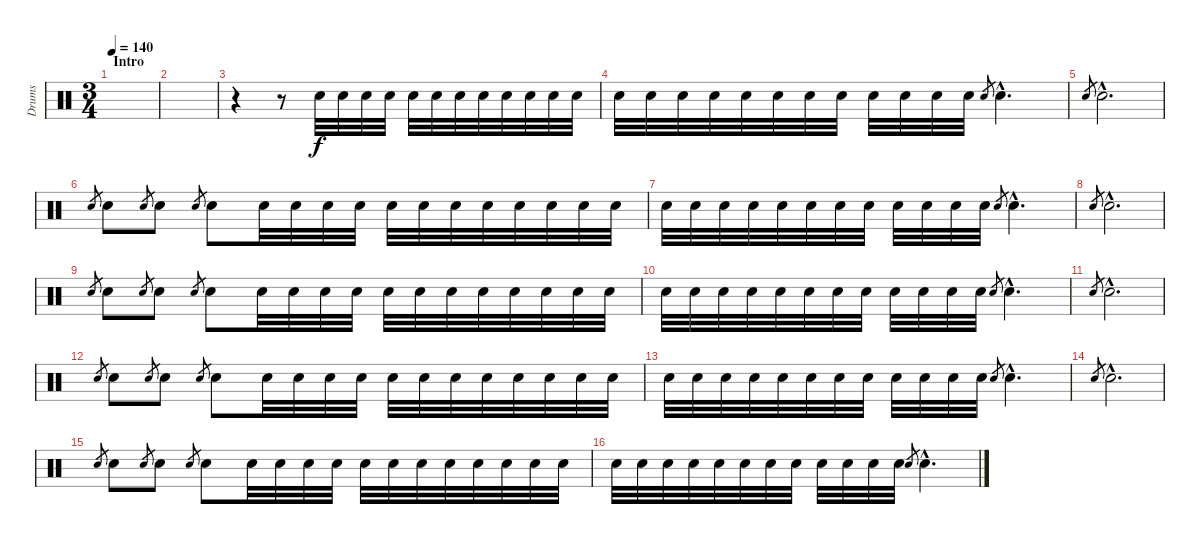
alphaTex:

\track ("Drums" "Drums") {instrument percussion}
\staff {score}
\articulation defaults
\ts (3 4)
\section ("" "Intro")
\tempo 140
\clef neutral
\ks c
|
|
r.4 r.8 "Snare (hit) 2".32 "Snare (hit) 2".32 "Snare (hit) 2".32 "Snare (hit) 2".32 "Snare (hit) 2".32 "Snare (hit) 2".32 "Snare (hit) 2".32 "Snare (hit) 2".32 "Snare (hit) 2".32 "Snare (hit) 2".32 "Snare (hit) 2".32 "Snare (hit) 2".32 |
"Snare (hit) 2".32 "Snare (hit) 2".32 "Snare (hit) 2".32 "Snare (hit) 2".32 "Snare (hit) 2".32 "Snare (hit) 2".32 "Snare (hit) 2".32 "Snare (hit) 2".32 "Snare (hit) 2".32 "Snare (hit) 2".32 "Snare (hit) 2".32 "Snare (hit) 2".32 "Snare (hit) 2".8{gr} "Snare (hit) 2"{hac}.4{d} |
"Snare (hit) 2".8{gr} "Snare (hit) 2"{hac}.2{d} |
"Snare (hit) 2".8{gr} "Snare (hit) 2".8 "Snare (hit) 2".8{gr} "Snare (hit) 2".8 "Snare (hit) 2".8{gr} "Snare (hit) 2".8 "Snare (hit) 2".32 "Snare (hit) 2".32 "Snare (hit) 2".32 "Snare (hit) 2".32 "Snare (hit) 2".32 "Snare (hit) 2".32 "Snare (hit) 2".32 "Snare (hit) 2".32 "Snare (hit) 2".32 "Snare (hit) 2".32 "Snare (hit) 2".32 "Snare (hit) 2".32 |
"Snare (hit) 2".32 "Snare (hit) 2".32 "Snare (hit) 2".32 "Snare (hit) 2".32 "Snare (hit) 2".32 "Snare (hit) 2".32 "Snare (hit) 2".32 "Snare (hit) 2".32 "Snare (hit) 2".32 "Snare (hit) 2".32 "Snare (hit) 2".32 "Snare (hit) 2".32 "Snare (hit) 2".8{gr} "Snare (hit) 2"{hac}.4{d} |
"Snare (hit) 2".8{gr} "Snare (hit) 2"{hac}.2{d} |
"Snare (hit) 2".8{gr} "Snare (hit) 2".8 "Snare (hit) 2".8{gr} "Snare (hit) 2".8 "Snare (hit) 2".8{gr} "Snare (hit) 2".8 "Snare (hit) 2".32 "Snare (hit) 2".32 "Snare (hit) 2".32 "Snare (hit) 2".32 "Snare (hit) 2".32 "Snare (hit) 2".32 "Snare (hit) 2".32 "Snare (hit) 2".32 "Snare (hit) 2".32 "Snare (hit) 2".32 "Snare (hit) 2".32 "Snare (hit) 2".32 |
"Snare (hit) 2".32 "Snare (hit) 2".32 "Snare (hit) 2".32 "Snare (hit) 2".32 "Snare (hit) 2".32 "Snare (hit) 2".32 "Snare (hit) 2".32 "Snare (hit) 2".32 "Snare (hit) 2".32 "Snare (hit) 2".32 "Snare (hit) 2".32 "Snare (hit) 2".32 "Snare (hit) 2".8{gr} "Snare (hit) 2"{hac}.4{d} |
"Snare (hit) 2".8{gr} "Snare (hit) 2"{hac}.2{d} |
"Snare (hit) 2".8{gr} "Snare (hit) 2".8 "Snare (hit) 2".8{gr} "Snare (hit) 2".8 "Snare (hit) 2".8{gr} "Snare (hit) 2".8 "Snare (hit) 2".32 "Snare (hit) 2".32 "Snare (hit) 2".32 "Snare (hit) 2".32 "Snare (hit) 2".32 "Snare (hit) 2".32 "Snare (hit) 2".32 "Snare (hit) 2".32 "Snare (hit) 2".32 "Snare (hit) 2".32 "Snare (hit) 2".32 "Snare (hit) 2".32 |
"Snare (hit) 2".32 "Snare (hit) 2".32 "Snare (hit) 2".32 "Snare (hit) 2".32 "Snare (hit) 2".32 "Snare (hit) 2".32 "Snare (hit) 2".32 "Snare (hit) 2".32 "Snare (hit) 2".32 "Snare (hit) 2".32 "Snare (hit) 2".32 "Snare (hit) 2".32 "Snare (hit) 2".8{gr} "Snare (hit) 2"{hac}.4{d} |
"Snare (hit) 2".8{gr} "Snare (hit) 2"{hac}.2{d} |
"Snare (hit) 2".8{gr} "Snare (hit) 2".8 "Snare (hit) 2".8{gr} "Snare (hit) 2".8 "Snare (hit) 2".8{gr} "Snare (hit) 2".8 "Snare (hit) 2".32 "Snare (hit) 2".32 "Snare (hit) 2".32 "Snare (hit) 2".32 "Snare (hit) 2".32 "Snare (hit) 2".32 "Snare (hit) 2".32 "Snare (hit) 2".32 "Snare (hit) 2".32 "Snare (hit) 2".32 "Snare (hit) 2".32 "Snare (hit) 2".32 |
"Snare (hit) 2".32 "Snare (hit) 2".32 "Snare (hit) 2".32 "Snare (hit) 2".32 "Snare (hit) 2".32 "Snare (hit) 2".32 "Snare (hit) 2".32 "Snare (hit) 2".32 "Snare (hit) 2".32 "Snare (hit) 2".32 "Snare (hit) 2".32 "Snare (hit) 2".32 "Snare (hit) 2".8{gr} "Snare (hit) 2"{hac}.4{d}
